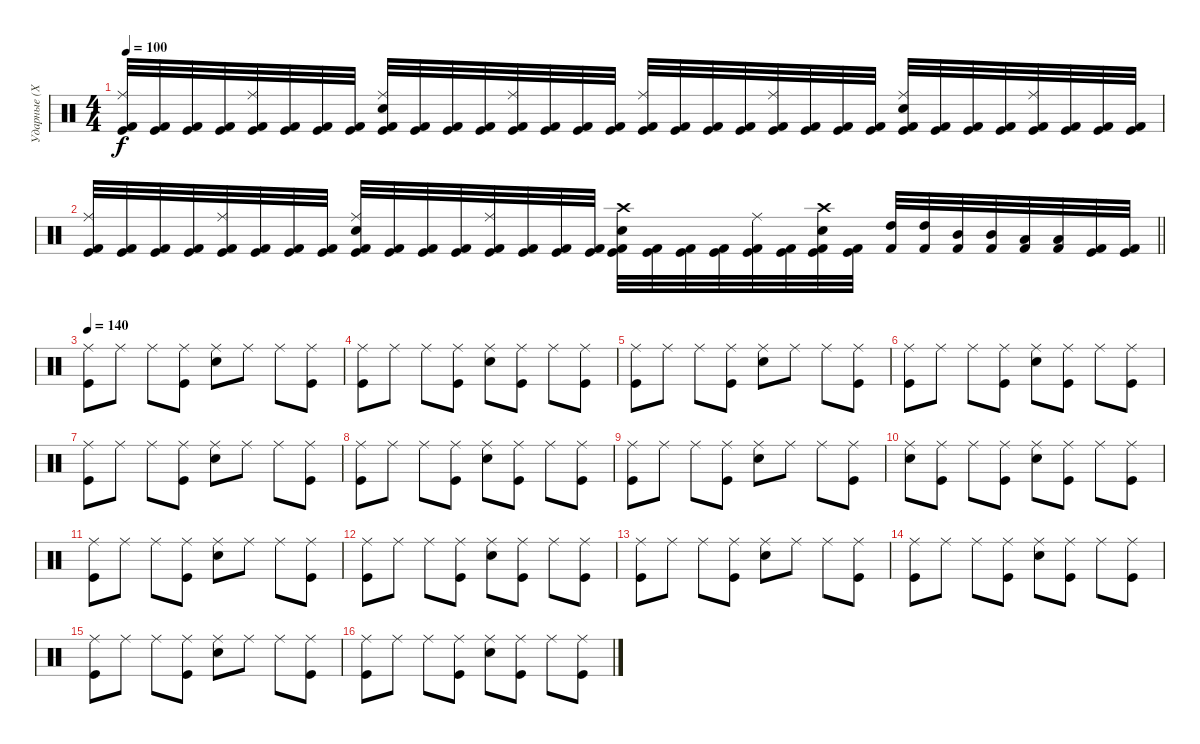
\track ("Ударные (Хеллхаммер)" "Ударные (Х") {instrument percussion}
\staff {score}
\articulation defaults
\ts (4 4)
\tempo 100
\clef neutral
\ks c
("Kick (hit) 2" "Ride (middle)" "Kick (hit)").32{dy f} ("Kick (hit) 2" "Kick (hit)").32 ("Kick (hit) 2" "Kick (hit)").32 ("Kick (hit) 2" "Kick (hit)").32 ("Kick (hit) 2" "Ride (middle)" "Kick (hit)").32 ("Kick (hit) 2" "Kick (hit)").32 ("Kick (hit) 2" "Kick (hit)").32 ("Kick (hit) 2" "Kick (hit)").32 ("Kick (hit) 2" "Ride (middle)" "Electric Snare (hit)" "Kick (hit)").32 ("Kick (hit) 2" "Kick (hit)").32 ("Kick (hit) 2" "Kick (hit)").32 ("Kick (hit) 2" "Kick (hit)").32 ("Kick (hit) 2" "Ride (middle)" "Kick (hit)").32 ("Kick (hit) 2" "Kick (hit)").32 ("Kick (hit) 2" "Kick (hit)").32 ("Kick (hit) 2" "Kick (hit)").32 ("Kick (hit) 2" "Ride (middle)" "Kick (hit)").32 ("Kick (hit) 2" "Kick (hit)").32 ("Kick (hit) 2" "Kick (hit)").32 ("Kick (hit) 2" "Kick (hit)").32 ("Kick (hit) 2" "Ride (middle)" "Kick (hit)").32 ("Kick (hit) 2" "Kick (hit)").32 ("Kick (hit) 2" "Kick (hit)").32 ("Kick (hit) 2" "Kick (hit)").32 ("Kick (hit) 2" "Ride (middle)" "Electric Snare (hit)" "Kick (hit)").32 ("Kick (hit) 2" "Kick (hit)").32 ("Kick (hit) 2" "Kick (hit)").32 ("Kick (hit) 2" "Kick (hit)").32 ("Kick (hit) 2" "Ride (middle)" "Kick (hit)").32 ("Kick (hit) 2" "Kick (hit)").32 ("Kick (hit) 2" "Kick (hit)").32 ("Kick (hit) 2" "Kick (hit)").32 |
\barLineRight lightlight
("Kick (hit) 2" "Ride (middle)" "Kick (hit)").32 ("Kick (hit) 2" "Kick (hit)").32 ("Kick (hit) 2" "Kick (hit)").32 ("Kick (hit) 2" "Kick (hit)").32 ("Kick (hit) 2" "Ride (middle)" "Kick (hit)").32 ("Kick (hit) 2" "Kick (hit)").32 ("Kick (hit) 2" "Kick (hit)").32 ("Kick (hit) 2" "Kick (hit)").32 ("Kick (hit) 2" "Ride (middle)" "Electric Snare (hit)" "Kick (hit)").32 ("Kick (hit) 2" "Kick (hit)").32 ("Kick (hit) 2" "Kick (hit)").32 ("Kick (hit) 2" "Kick (hit)").32 ("Kick (hit) 2" "Ride (middle)" "Kick (hit)").32 ("Kick (hit) 2" "Kick (hit)").32 ("Kick (hit) 2" "Kick (hit)").32 ("Kick (hit) 2" "Kick (hit)").32 ("Kick (hit) 2" "Crash high (hit)" "Electric Snare (hit)" "Kick (hit)").32 ("Kick (hit) 2" "Kick (hit)").32 ("Kick (hit) 2" "Kick (hit)").32 ("Kick (hit) 2" "Kick (hit)").32 ("Kick (hit) 2" "Ride (middle)" "Kick (hit)").32 ("Kick (hit) 2" "Kick (hit)").32 ("Kick (hit) 2" "Crash high (hit)" "Electric Snare (hit)" "Kick (hit)").32 ("Kick (hit) 2" "Kick (hit)").32 ("Kick (hit) 2" "High Tom (hit)").32 ("Kick (hit) 2" "High Tom (hit)").32 ("Kick (hit) 2" "Mid Tom (hit)").32 ("Kick (hit) 2" "Mid Tom (hit)").32 ("Kick (hit) 2" "Low Tom (hit)").32 ("Kick (hit) 2" "Low Tom (hit)").32 ("Kick (hit) 2" "Kick (hit)").32 ("Kick (hit) 2" "Kick (hit)").32 |
\tempo 140
("Ride (middle)" "Kick (hit)").8 "Ride (middle)".8 "Ride (middle)".8 ("Ride (middle)" "Kick (hit)").8 ("Ride (middle)" "Electric Snare (hit)").8 "Ride (middle)".8 "Ride (middle)".8 ("Ride (middle)" "Kick (hit)").8 |
("Ride (middle)" "Kick (hit)").8 "Ride (middle)".8 "Ride (middle)".8 ("Ride (middle)" "Kick (hit)").8 ("Ride (middle)" "Electric Snare (hit)").8 ("Ride (middle)" "Kick (hit)").8 "Ride (middle)".8 ("Ride (middle)" "Kick (hit)").8 |
("Ride (middle)" "Kick (hit)").8 "Ride (middle)".8 "Ride (middle)".8 ("Ride (middle)" "Kick (hit)").8 ("Ride (middle)" "Electric Snare (hit)").8 "Ride (middle)".8 "Ride (middle)".8 ("Ride (middle)" "Kick (hit)").8 |
("Ride (middle)" "Kick (hit)").8 "Ride (middle)".8 "Ride (middle)".8 ("Ride (middle)" "Kick (hit)").8 ("Ride (middle)" "Electric Snare (hit)").8 ("Ride (middle)" "Kick (hit)").8 "Ride (middle)".8 ("Ride (middle)" "Kick (hit)").8 |
("Ride (middle)" "Kick (hit)").8 "Ride (middle)".8 "Ride (middle)".8 ("Ride (middle)" "Kick (hit)").8 ("Ride (middle)" "Electric Snare (hit)").8 "Ride (middle)".8 "Ride (middle)".8 ("Ride (middle)" "Kick (hit)").8 |
("Ride (middle)" "Kick (hit)").8 "Ride (middle)".8 "Ride (middle)".8 ("Ride (middle)" "Kick (hit)").8 ("Ride (middle)" "Electric Snare (hit)").8 ("Ride (middle)" "Kick (hit)").8 "Ride (middle)".8 ("Ride (middle)" "Kick (hit)").8 |
("Ride (middle)" "Kick (hit)").8 "Ride (middle)".8 "Ride (middle)".8 ("Ride (middle)" "Kick (hit)").8 ("Ride (middle)" "Electric Snare (hit)").8 "Ride (middle)".8 "Ride (middle)".8 ("Ride (middle)" "Kick (hit)").8 |
("Ride (middle)" "Electric Snare (hit)").8 ("Ride (middle)" "Kick (hit)").8 "Ride (middle)".8 ("Ride (middle)" "Kick (hit)").8 ("Ride (middle)" "Electric Snare (hit)").8 ("Ride (middle)" "Kick (hit)").8 "Ride (middle)".8 ("Ride (middle)" "Kick (hit)").8 |
("Ride (middle)" "Kick (hit)").8 "Ride (middle)".8 "Ride (middle)".8 ("Ride (middle)" "Kick (hit)").8 ("Ride (middle)" "Electric Snare (hit)").8 "Ride (middle)".8 "Ride (middle)".8 ("Ride (middle)" "Kick (hit)").8 |
("Ride (middle)" "Kick (hit)").8 "Ride (middle)".8 "Ride (middle)".8 ("Ride (middle)" "Kick (hit)").8 ("Ride (middle)" "Electric Snare (hit)").8 ("Ride (middle)" "Kick (hit)").8 "Ride (middle)".8 ("Ride (middle)" "Kick (hit)").8 |
("Ride (middle)" "Kick (hit)").8 "Ride (middle)".8 "Ride (middle)".8 ("Ride (middle)" "Kick (hit)").8 ("Ride (middle)" "Electric Snare (hit)").8 "Ride (middle)".8 "Ride (middle)".8 ("Ride (middle)" "Kick (hit)").8 |
("Ride (middle)" "Kick (hit)").8 "Ride (middle)".8 "Ride (middle)".8 ("Ride (middle)" "Kick (hit)").8 ("Ride (middle)" "Electric Snare (hit)").8 ("Ride (middle)" "Kick (hit)").8 "Ride (middle)".8 ("Ride (middle)" "Kick (hit)").8 |
("Ride (middle)" "Kick (hit)").8 "Ride (middle)".8 "Ride (middle)".8 ("Ride (middle)" "Kick (hit)").8 ("Ride (middle)" "Electric Snare (hit)").8 "Ride (middle)".8 "Ride (middle)".8 ("Ride (middle)" "Kick (hit)").8 |
("Ride (middle)" "Kick (hit)").8 "Ride (middle)".8 "Ride (middle)".8 ("Ride (middle)" "Kick (hit)").8 ("Ride (middle)" "Electric Snare (hit)").8 ("Ride (middle)" "Kick (hit)").8 "Ride (middle)".8 ("Ride (middle)" "Kick (hit)").8
